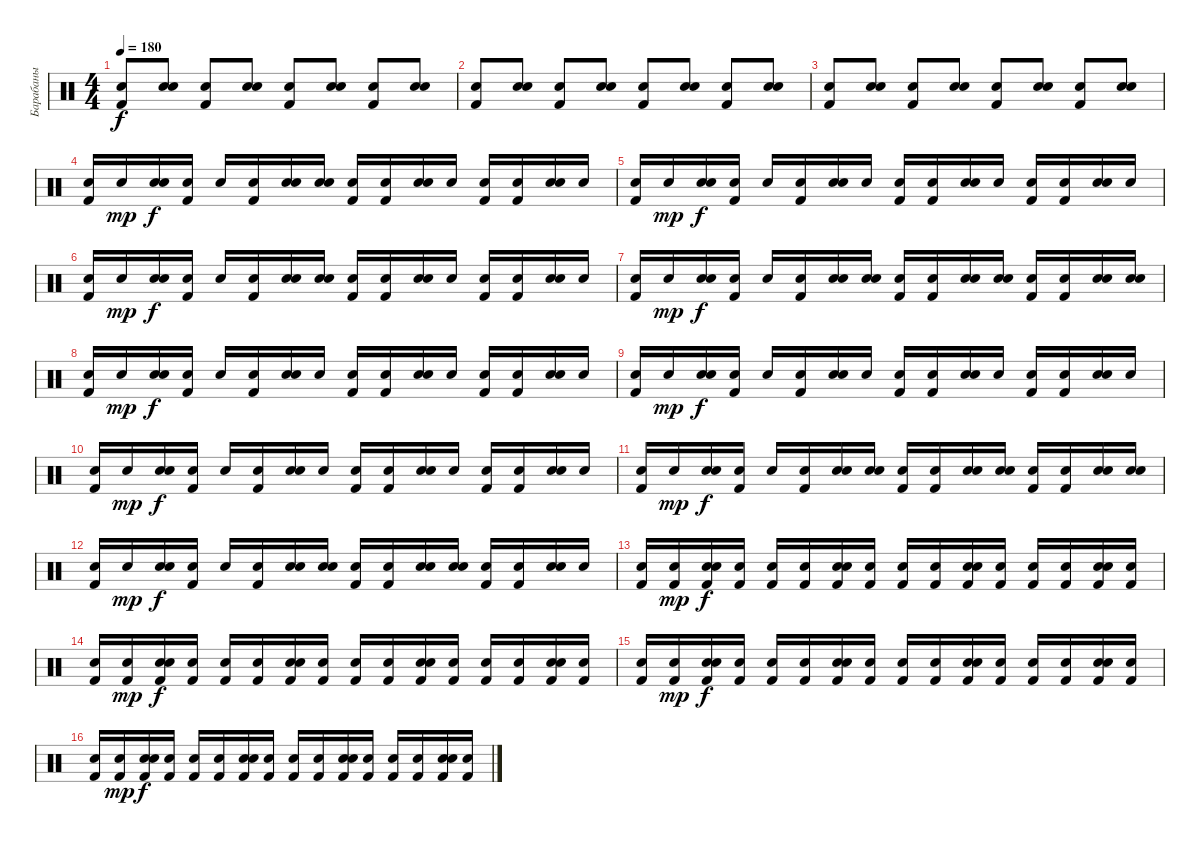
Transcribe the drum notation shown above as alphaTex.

\track ("Барабаны" "Барабаны") {instrument percussion}
\staff {score}
\articulation defaults
\ts (4 4)
\tempo 180
\clef neutral
\ks c
("Snare (hit)" "Kick (hit) 2").8{dy f} ("Snare (hit)" "Snare (hit) 2").8 ("Snare (hit)" "Kick (hit) 2").8 ("Snare (hit)" "Snare (hit) 2").8 ("Snare (hit)" "Kick (hit) 2").8 ("Snare (hit)" "Snare (hit) 2").8 ("Snare (hit)" "Kick (hit) 2").8 ("Snare (hit)" "Snare (hit) 2").8 |
("Snare (hit)" "Kick (hit) 2").8 ("Snare (hit)" "Snare (hit) 2").8 ("Snare (hit)" "Kick (hit) 2").8 ("Snare (hit)" "Snare (hit) 2").8 ("Snare (hit)" "Kick (hit) 2").8 ("Snare (hit)" "Snare (hit) 2").8 ("Snare (hit)" "Kick (hit) 2").8 ("Snare (hit)" "Snare (hit) 2").8 |
("Snare (hit)" "Kick (hit) 2").8 ("Snare (hit)" "Snare (hit) 2").8 ("Snare (hit)" "Kick (hit) 2").8 ("Snare (hit)" "Snare (hit) 2").8 ("Snare (hit)" "Kick (hit) 2").8 ("Snare (hit)" "Snare (hit) 2").8 ("Snare (hit)" "Kick (hit) 2").8 ("Snare (hit)" "Snare (hit) 2").8 |
("Snare (hit)" "Kick (hit) 2").16 "Snare (hit)".16{dy mp} ("Snare (hit)" "Snare (hit) 2").16{dy f} ("Snare (hit)" "Kick (hit) 2").16 "Snare (hit)".16 ("Snare (hit)" "Kick (hit) 2").16 ("Snare (hit)" "Snare (hit) 2").16 ("Snare (hit)" "Snare (hit)").16 ("Snare (hit)" "Kick (hit) 2").16 ("Snare (hit)" "Kick (hit) 2").16 ("Snare (hit)" "Snare (hit) 2").16 "Snare (hit)".16 ("Snare (hit)" "Kick (hit) 2").16 ("Snare (hit)" "Kick (hit) 2").16 ("Snare (hit)" "Snare (hit) 2").16 "Snare (hit)".16 |
("Snare (hit)" "Kick (hit) 2").16 "Snare (hit)".16{dy mp} ("Snare (hit)" "Snare (hit) 2").16{dy f} ("Snare (hit)" "Kick (hit) 2").16 "Snare (hit)".16 ("Snare (hit)" "Kick (hit) 2").16 ("Snare (hit)" "Snare (hit) 2").16 "Snare (hit)".16 ("Snare (hit)" "Kick (hit) 2").16 ("Snare (hit)" "Kick (hit) 2").16 ("Snare (hit)" "Snare (hit) 2").16 "Snare (hit)".16 ("Snare (hit)" "Kick (hit) 2").16 ("Snare (hit)" "Kick (hit) 2").16 ("Snare (hit)" "Snare (hit) 2").16 "Snare (hit)".16 |
("Snare (hit)" "Kick (hit) 2").16 "Snare (hit)".16{dy mp} ("Snare (hit)" "Snare (hit) 2").16{dy f} ("Snare (hit)" "Kick (hit) 2").16 "Snare (hit)".16 ("Snare (hit)" "Kick (hit) 2").16 ("Snare (hit)" "Snare (hit) 2").16 ("Snare (hit)" "Snare (hit)").16 ("Snare (hit)" "Kick (hit) 2").16 ("Snare (hit)" "Kick (hit) 2").16 ("Snare (hit)" "Snare (hit) 2").16 "Snare (hit)".16 ("Snare (hit)" "Kick (hit) 2").16 ("Snare (hit)" "Kick (hit) 2").16 ("Snare (hit)" "Snare (hit) 2").16 "Snare (hit)".16 |
("Snare (hit)" "Kick (hit) 2").16 "Snare (hit)".16{dy mp} ("Snare (hit)" "Snare (hit) 2").16{dy f} ("Snare (hit)" "Kick (hit) 2").16 "Snare (hit)".16 ("Snare (hit)" "Kick (hit) 2").16 ("Snare (hit)" "Snare (hit) 2").16 ("Snare (hit)" "Snare (hit)").16 ("Snare (hit)" "Kick (hit) 2").16 ("Snare (hit)" "Kick (hit) 2").16 ("Snare (hit)" "Snare (hit) 2").16 ("Snare (hit)" "Snare (hit)").16 ("Snare (hit)" "Kick (hit) 2").16 ("Snare (hit)" "Kick (hit) 2").16 ("Snare (hit)" "Snare (hit) 2").16 ("Snare (hit)" "Snare (hit)").16 |
("Snare (hit)" "Kick (hit) 2").16 "Snare (hit)".16{dy mp} ("Snare (hit)" "Snare (hit) 2").16{dy f} ("Snare (hit)" "Kick (hit) 2").16 "Snare (hit)".16 ("Snare (hit)" "Kick (hit) 2").16 ("Snare (hit)" "Snare (hit) 2").16 "Snare (hit)".16 ("Snare (hit)" "Kick (hit) 2").16 ("Snare (hit)" "Kick (hit) 2").16 ("Snare (hit)" "Snare (hit) 2").16 "Snare (hit)".16 ("Snare (hit)" "Kick (hit) 2").16 ("Snare (hit)" "Kick (hit) 2").16 ("Snare (hit)" "Snare (hit) 2").16 "Snare (hit)".16 |
("Snare (hit)" "Kick (hit) 2").16 "Snare (hit)".16{dy mp} ("Snare (hit)" "Snare (hit) 2").16{dy f} ("Snare (hit)" "Kick (hit) 2").16 "Snare (hit)".16 ("Snare (hit)" "Kick (hit) 2").16 ("Snare (hit)" "Snare (hit) 2").16 "Snare (hit)".16 ("Snare (hit)" "Kick (hit) 2").16 ("Snare (hit)" "Kick (hit) 2").16 ("Snare (hit)" "Snare (hit) 2").16 "Snare (hit)".16 ("Snare (hit)" "Kick (hit) 2").16 ("Snare (hit)" "Kick (hit) 2").16 ("Snare (hit)" "Snare (hit) 2").16 "Snare (hit)".16 |
("Snare (hit)" "Kick (hit) 2").16 "Snare (hit)".16{dy mp} ("Snare (hit)" "Snare (hit) 2").16{dy f} ("Snare (hit)" "Kick (hit) 2").16 "Snare (hit)".16 ("Snare (hit)" "Kick (hit) 2").16 ("Snare (hit)" "Snare (hit) 2").16 "Snare (hit)".16 ("Snare (hit)" "Kick (hit) 2").16 ("Snare (hit)" "Kick (hit) 2").16 ("Snare (hit)" "Snare (hit) 2").16 "Snare (hit)".16 ("Snare (hit)" "Kick (hit) 2").16 ("Snare (hit)" "Kick (hit) 2").16 ("Snare (hit)" "Snare (hit) 2").16 "Snare (hit)".16 |
("Snare (hit)" "Kick (hit) 2").16 "Snare (hit)".16{dy mp} ("Snare (hit)" "Snare (hit) 2").16{dy f} ("Snare (hit)" "Kick (hit) 2").16 "Snare (hit)".16 ("Snare (hit)" "Kick (hit) 2").16 ("Snare (hit)" "Snare (hit) 2").16 ("Snare (hit)" "Snare (hit)").16 ("Snare (hit)" "Kick (hit) 2").16 ("Snare (hit)" "Kick (hit) 2").16 ("Snare (hit)" "Snare (hit) 2").16 ("Snare (hit)" "Snare (hit)").16 ("Snare (hit)" "Kick (hit) 2").16 ("Snare (hit)" "Kick (hit) 2").16 ("Snare (hit)" "Snare (hit) 2").16 ("Snare (hit)" "Snare (hit)").16 |
("Snare (hit)" "Kick (hit) 2").16 "Snare (hit)".16{dy mp} ("Snare (hit)" "Snare (hit) 2").16{dy f} ("Snare (hit)" "Kick (hit) 2").16 "Snare (hit)".16 ("Snare (hit)" "Kick (hit) 2").16 ("Snare (hit)" "Snare (hit) 2").16 ("Snare (hit)" "Snare (hit)").16 ("Snare (hit)" "Kick (hit) 2").16 ("Snare (hit)" "Kick (hit) 2").16 ("Snare (hit)" "Snare (hit) 2").16 ("Snare (hit)" "Snare (hit)").16 ("Snare (hit)" "Kick (hit) 2").16 ("Snare (hit)" "Kick (hit) 2").16 ("Snare (hit)" "Snare (hit) 2").16 "Snare (hit)".16 |
("Snare (hit)" "Kick (hit) 2").16 ("Snare (hit)" "Kick (hit) 2").16{dy mp} ("Snare (hit)" "Snare (hit) 2" "Kick (hit) 2").16{dy f} ("Snare (hit)" "Kick (hit) 2").16 ("Snare (hit)" "Kick (hit) 2").16 ("Snare (hit)" "Kick (hit) 2").16 ("Snare (hit)" "Snare (hit) 2" "Kick (hit) 2").16 ("Snare (hit)" "Kick (hit) 2").16 ("Snare (hit)" "Kick (hit) 2").16 ("Snare (hit)" "Kick (hit) 2").16 ("Snare (hit)" "Snare (hit) 2" "Kick (hit) 2").16 ("Snare (hit)" "Kick (hit) 2").16 ("Snare (hit)" "Kick (hit) 2").16 ("Snare (hit)" "Kick (hit) 2").16 ("Snare (hit)" "Snare (hit) 2" "Kick (hit) 2").16 ("Snare (hit)" "Kick (hit) 2").16 |
("Snare (hit)" "Kick (hit) 2").16 ("Snare (hit)" "Kick (hit) 2").16{dy mp} ("Snare (hit)" "Snare (hit) 2" "Kick (hit) 2").16{dy f} ("Snare (hit)" "Kick (hit) 2").16 ("Snare (hit)" "Kick (hit) 2").16 ("Snare (hit)" "Kick (hit) 2").16 ("Snare (hit)" "Snare (hit) 2" "Kick (hit) 2").16 ("Snare (hit)" "Kick (hit) 2").16 ("Snare (hit)" "Kick (hit) 2").16 ("Snare (hit)" "Kick (hit) 2").16 ("Snare (hit)" "Snare (hit) 2" "Kick (hit) 2").16 ("Snare (hit)" "Kick (hit) 2").16 ("Snare (hit)" "Kick (hit) 2").16 ("Snare (hit)" "Kick (hit) 2").16 ("Snare (hit)" "Snare (hit) 2" "Kick (hit) 2").16 ("Snare (hit)" "Kick (hit) 2").16 |
("Snare (hit)" "Kick (hit) 2").16 ("Snare (hit)" "Kick (hit) 2").16{dy mp} ("Snare (hit)" "Snare (hit) 2" "Kick (hit) 2").16{dy f} ("Snare (hit)" "Kick (hit) 2").16 ("Snare (hit)" "Kick (hit) 2").16 ("Snare (hit)" "Kick (hit) 2").16 ("Snare (hit)" "Snare (hit) 2" "Kick (hit) 2").16 ("Snare (hit)" "Kick (hit) 2").16 ("Snare (hit)" "Kick (hit) 2").16 ("Snare (hit)" "Kick (hit) 2").16 ("Snare (hit)" "Snare (hit) 2" "Kick (hit) 2").16 ("Snare (hit)" "Kick (hit) 2").16 ("Snare (hit)" "Kick (hit) 2").16 ("Snare (hit)" "Kick (hit) 2").16 ("Snare (hit)" "Snare (hit) 2" "Kick (hit) 2").16 ("Snare (hit)" "Kick (hit) 2").16 |
("Snare (hit)" "Kick (hit) 2").16 ("Snare (hit)" "Kick (hit) 2").16{dy mp} ("Snare (hit)" "Snare (hit) 2" "Kick (hit) 2").16{dy f} ("Snare (hit)" "Kick (hit) 2").16 ("Snare (hit)" "Kick (hit) 2").16 ("Snare (hit)" "Kick (hit) 2").16 ("Snare (hit)" "Snare (hit) 2" "Kick (hit) 2").16 ("Snare (hit)" "Kick (hit) 2").16 ("Snare (hit)" "Kick (hit) 2").16 ("Snare (hit)" "Kick (hit) 2").16 ("Snare (hit)" "Snare (hit) 2" "Kick (hit) 2").16 ("Snare (hit)" "Kick (hit) 2").16 ("Snare (hit)" "Kick (hit) 2").16 ("Snare (hit)" "Kick (hit) 2").16 ("Snare (hit)" "Snare (hit) 2" "Kick (hit) 2").16 ("Snare (hit)" "Kick (hit) 2").16
